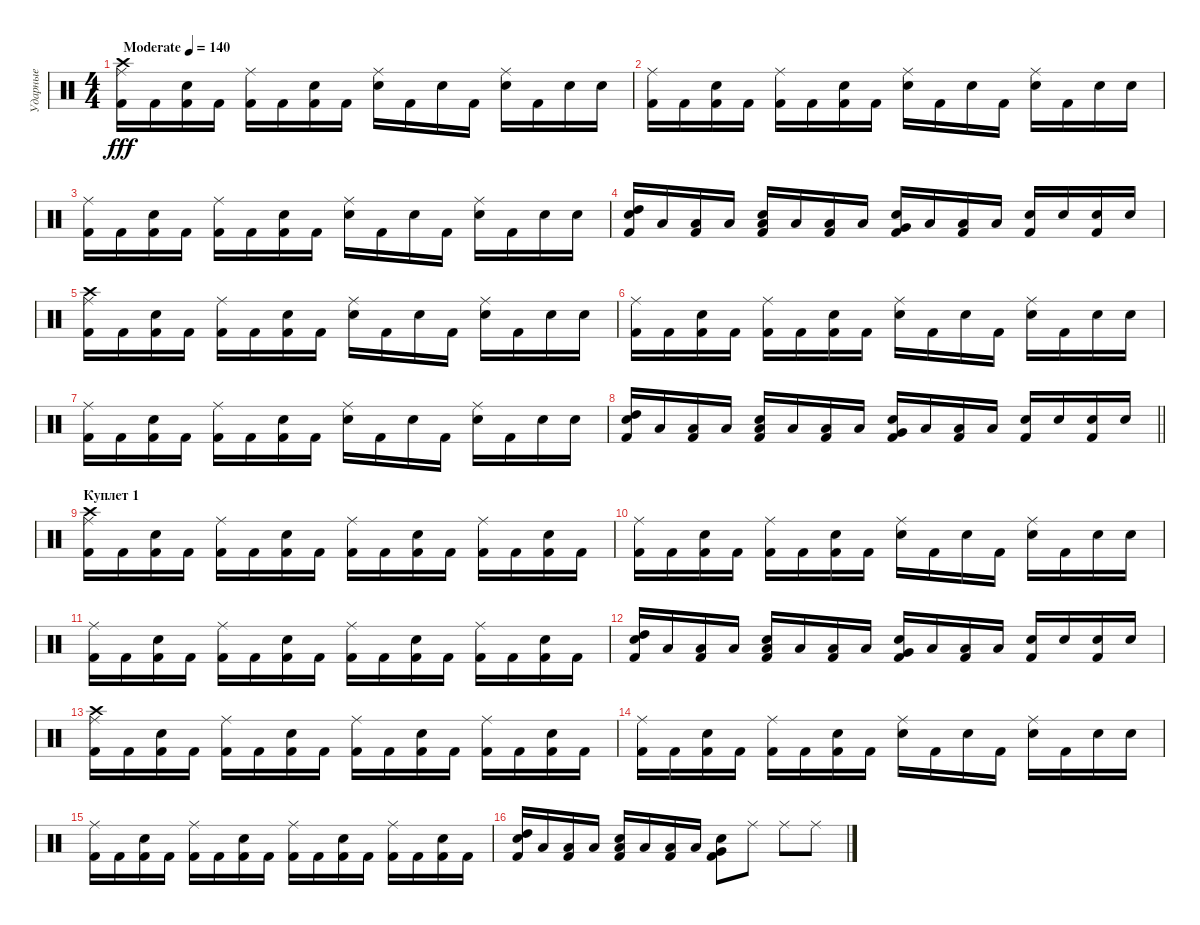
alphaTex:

\track ("Ударные" "Ударные") {instrument percussion}
\staff {score}
\articulation defaults
\ts (4 4)
\tempo (140 "Moderate")
\clef neutral
\ks c
("Kick (hit) 2" "Ride (middle)" "Crash high (hit)").16{dy fff} "Kick (hit) 2".16 ("Kick (hit) 2" "Snare (hit) 2").16 "Kick (hit) 2".16 ("Kick (hit) 2" "Ride (middle)").16 "Kick (hit) 2".16 ("Kick (hit) 2" "Snare (hit) 2").16 "Kick (hit) 2".16 ("Snare (hit) 2" "Ride (middle)").16 "Kick (hit) 2".16 "Snare (hit) 2".16 "Kick (hit) 2".16 ("Snare (hit) 2" "Ride (middle)").16 "Kick (hit) 2".16 "Snare (hit) 2".16 "Snare (hit) 2".16 |
("Kick (hit) 2" "Ride (middle)").16 "Kick (hit) 2".16 ("Kick (hit) 2" "Snare (hit) 2").16 "Kick (hit) 2".16 ("Kick (hit) 2" "Ride (middle)").16 "Kick (hit) 2".16 ("Kick (hit) 2" "Snare (hit) 2").16 "Kick (hit) 2".16 ("Snare (hit) 2" "Ride (middle)").16 "Kick (hit) 2".16 "Snare (hit) 2".16 "Kick (hit) 2".16 ("Snare (hit) 2" "Ride (middle)").16 "Kick (hit) 2".16 "Snare (hit) 2".16 "Snare (hit) 2".16 |
("Kick (hit) 2" "Ride (middle)").16 "Kick (hit) 2".16 ("Kick (hit) 2" "Snare (hit) 2").16 "Kick (hit) 2".16 ("Kick (hit) 2" "Ride (middle)").16 "Kick (hit) 2".16 ("Kick (hit) 2" "Snare (hit) 2").16 "Kick (hit) 2".16 ("Snare (hit) 2" "Ride (middle)").16 "Kick (hit) 2".16 "Snare (hit) 2".16 "Kick (hit) 2".16 ("Snare (hit) 2" "Ride (middle)").16 "Kick (hit) 2".16 "Snare (hit) 2".16 "Snare (hit) 2".16 |
("High Tom (hit)" "Snare (hit) 2" "Kick (hit) 2").16 "Low Floor Tom (hit)".16 ("Low Floor Tom (hit)" "Kick (hit) 2").16 "Low Floor Tom (hit)".16 ("Low Tom (hit)" "Snare (hit) 2" "Kick (hit) 2").16 "Low Floor Tom (hit)".16 ("Low Floor Tom (hit)" "Kick (hit) 2").16 "Low Floor Tom (hit)".16 ("Very Low Tom (hit)" "Snare (hit) 2" "Kick (hit) 2").16 "Low Floor Tom (hit)".16 ("Low Floor Tom (hit)" "Kick (hit) 2").16 "Low Floor Tom (hit)".16 ("Snare (hit) 2" "Kick (hit) 2").16 "Snare (hit) 2".16 ("Snare (hit) 2" "Kick (hit) 2").16 "Snare (hit) 2".16 |
("Kick (hit) 2" "Ride (middle)" "Crash high (hit)").16 "Kick (hit) 2".16 ("Kick (hit) 2" "Snare (hit) 2").16 "Kick (hit) 2".16 ("Kick (hit) 2" "Ride (middle)").16 "Kick (hit) 2".16 ("Kick (hit) 2" "Snare (hit) 2").16 "Kick (hit) 2".16 ("Snare (hit) 2" "Ride (middle)").16 "Kick (hit) 2".16 "Snare (hit) 2".16 "Kick (hit) 2".16 ("Snare (hit) 2" "Ride (middle)").16 "Kick (hit) 2".16 "Snare (hit) 2".16 "Snare (hit) 2".16 |
("Kick (hit) 2" "Ride (middle)").16 "Kick (hit) 2".16 ("Kick (hit) 2" "Snare (hit) 2").16 "Kick (hit) 2".16 ("Kick (hit) 2" "Ride (middle)").16 "Kick (hit) 2".16 ("Kick (hit) 2" "Snare (hit) 2").16 "Kick (hit) 2".16 ("Snare (hit) 2" "Ride (middle)").16 "Kick (hit) 2".16 "Snare (hit) 2".16 "Kick (hit) 2".16 ("Snare (hit) 2" "Ride (middle)").16 "Kick (hit) 2".16 "Snare (hit) 2".16 "Snare (hit) 2".16 |
("Kick (hit) 2" "Ride (middle)").16 "Kick (hit) 2".16 ("Kick (hit) 2" "Snare (hit) 2").16 "Kick (hit) 2".16 ("Kick (hit) 2" "Ride (middle)").16 "Kick (hit) 2".16 ("Kick (hit) 2" "Snare (hit) 2").16 "Kick (hit) 2".16 ("Snare (hit) 2" "Ride (middle)").16 "Kick (hit) 2".16 "Snare (hit) 2".16 "Kick (hit) 2".16 ("Snare (hit) 2" "Ride (middle)").16 "Kick (hit) 2".16 "Snare (hit) 2".16 "Snare (hit) 2".16 |
\barLineRight lightlight
("High Tom (hit)" "Snare (hit) 2" "Kick (hit) 2").16 "Low Floor Tom (hit)".16 ("Low Floor Tom (hit)" "Kick (hit) 2").16 "Low Floor Tom (hit)".16 ("Low Tom (hit)" "Snare (hit) 2" "Kick (hit) 2").16 "Low Floor Tom (hit)".16 ("Low Floor Tom (hit)" "Kick (hit) 2").16 "Low Floor Tom (hit)".16 ("Very Low Tom (hit)" "Snare (hit) 2" "Kick (hit) 2").16 "Low Floor Tom (hit)".16 ("Low Floor Tom (hit)" "Kick (hit) 2").16 "Low Floor Tom (hit)".16 ("Snare (hit) 2" "Kick (hit) 2").16 "Snare (hit) 2".16 ("Snare (hit) 2" "Kick (hit) 2").16 "Snare (hit) 2".16 |
\section ("" "Куплет 1")
("Kick (hit) 2" "Ride (middle)" "Crash high (hit)").16 "Kick (hit) 2".16 ("Kick (hit) 2" "Snare (hit) 2").16 "Kick (hit) 2".16 ("Kick (hit) 2" "Ride (middle)").16 "Kick (hit) 2".16 ("Kick (hit) 2" "Snare (hit) 2").16 "Kick (hit) 2".16 ("Kick (hit) 2" "Ride (middle)").16 "Kick (hit) 2".16 ("Kick (hit) 2" "Snare (hit) 2").16 "Kick (hit) 2".16 ("Kick (hit) 2" "Ride (middle)").16 "Kick (hit) 2".16 ("Kick (hit) 2" "Snare (hit) 2").16 "Kick (hit) 2".16 |
("Kick (hit) 2" "Ride (middle)").16 "Kick (hit) 2".16 ("Kick (hit) 2" "Snare (hit) 2").16 "Kick (hit) 2".16 ("Kick (hit) 2" "Ride (middle)").16 "Kick (hit) 2".16 ("Kick (hit) 2" "Snare (hit) 2").16 "Kick (hit) 2".16 ("Snare (hit) 2" "Ride (middle)").16 "Kick (hit) 2".16 "Snare (hit) 2".16 "Kick (hit) 2".16 ("Snare (hit) 2" "Ride (middle)").16 "Kick (hit) 2".16 "Snare (hit) 2".16 "Snare (hit) 2".16 |
("Kick (hit) 2" "Ride (middle)").16 "Kick (hit) 2".16 ("Kick (hit) 2" "Snare (hit) 2").16 "Kick (hit) 2".16 ("Kick (hit) 2" "Ride (middle)").16 "Kick (hit) 2".16 ("Kick (hit) 2" "Snare (hit) 2").16 "Kick (hit) 2".16 ("Kick (hit) 2" "Ride (middle)").16 "Kick (hit) 2".16 ("Kick (hit) 2" "Snare (hit) 2").16 "Kick (hit) 2".16 ("Kick (hit) 2" "Ride (middle)").16 "Kick (hit) 2".16 ("Kick (hit) 2" "Snare (hit) 2").16 "Kick (hit) 2".16 |
("High Tom (hit)" "Snare (hit) 2" "Kick (hit) 2").16 "Low Floor Tom (hit)".16 ("Low Floor Tom (hit)" "Kick (hit) 2").16 "Low Floor Tom (hit)".16 ("Low Tom (hit)" "Snare (hit) 2" "Kick (hit) 2").16 "Low Floor Tom (hit)".16 ("Low Floor Tom (hit)" "Kick (hit) 2").16 "Low Floor Tom (hit)".16 ("Very Low Tom (hit)" "Snare (hit) 2" "Kick (hit) 2").16 "Low Floor Tom (hit)".16 ("Low Floor Tom (hit)" "Kick (hit) 2").16 "Low Floor Tom (hit)".16 ("Snare (hit) 2" "Kick (hit) 2").16 "Snare (hit) 2".16 ("Snare (hit) 2" "Kick (hit) 2").16 "Snare (hit) 2".16 |
("Kick (hit) 2" "Ride (middle)" "Crash high (hit)").16 "Kick (hit) 2".16 ("Kick (hit) 2" "Snare (hit) 2").16 "Kick (hit) 2".16 ("Kick (hit) 2" "Ride (middle)").16 "Kick (hit) 2".16 ("Kick (hit) 2" "Snare (hit) 2").16 "Kick (hit) 2".16 ("Kick (hit) 2" "Ride (middle)").16 "Kick (hit) 2".16 ("Kick (hit) 2" "Snare (hit) 2").16 "Kick (hit) 2".16 ("Kick (hit) 2" "Ride (middle)").16 "Kick (hit) 2".16 ("Kick (hit) 2" "Snare (hit) 2").16 "Kick (hit) 2".16 |
("Kick (hit) 2" "Ride (middle)").16 "Kick (hit) 2".16 ("Kick (hit) 2" "Snare (hit) 2").16 "Kick (hit) 2".16 ("Kick (hit) 2" "Ride (middle)").16 "Kick (hit) 2".16 ("Kick (hit) 2" "Snare (hit) 2").16 "Kick (hit) 2".16 ("Snare (hit) 2" "Ride (middle)").16 "Kick (hit) 2".16 "Snare (hit) 2".16 "Kick (hit) 2".16 ("Snare (hit) 2" "Ride (middle)").16 "Kick (hit) 2".16 "Snare (hit) 2".16 "Snare (hit) 2".16 |
("Kick (hit) 2" "Ride (middle)").16 "Kick (hit) 2".16 ("Kick (hit) 2" "Snare (hit) 2").16 "Kick (hit) 2".16 ("Kick (hit) 2" "Ride (middle)").16 "Kick (hit) 2".16 ("Kick (hit) 2" "Snare (hit) 2").16 "Kick (hit) 2".16 ("Kick (hit) 2" "Ride (middle)").16 "Kick (hit) 2".16 ("Kick (hit) 2" "Snare (hit) 2").16 "Kick (hit) 2".16 ("Kick (hit) 2" "Ride (middle)").16 "Kick (hit) 2".16 ("Kick (hit) 2" "Snare (hit) 2").16 "Kick (hit) 2".16 |
("High Tom (hit)" "Snare (hit) 2" "Kick (hit) 2").16 "Low Floor Tom (hit)".16 ("Low Floor Tom (hit)" "Kick (hit) 2").16 "Low Floor Tom (hit)".16 ("Low Tom (hit)" "Snare (hit) 2" "Kick (hit) 2").16 "Low Floor Tom (hit)".16 ("Low Floor Tom (hit)" "Kick (hit) 2").16 "Low Floor Tom (hit)".16 ("Very Low Tom (hit)" "Snare (hit) 2" "Kick (hit) 2").8 "Ride (middle)".8 "Ride (middle)".8 "Ride (middle)".8
